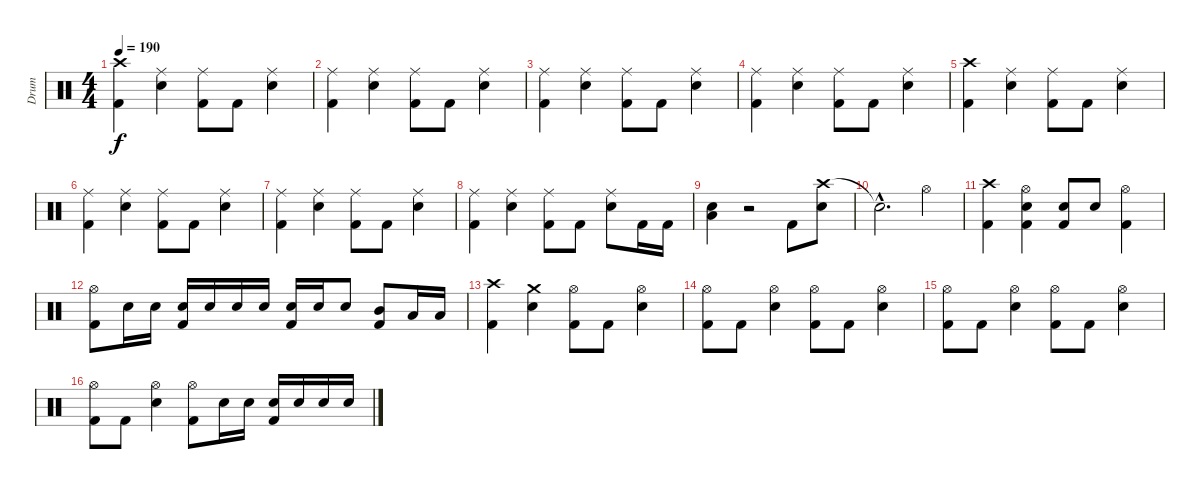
\track ("Drum" "Drum") {instrument percussion}
\staff {score}
\articulation defaults
\ts (4 4)
\tempo 190
\clef neutral
\ks c
("Crash high (hit)" "Kick (hit) 2").4{dy f} ("Ride (middle)" "Electric Snare (hit)").4 ("Ride (middle)" "Kick (hit) 2").8 "Kick (hit) 2".8 ("Ride (middle)" "Electric Snare (hit)").4 |
("Ride (middle)" "Kick (hit) 2").4 ("Ride (middle)" "Electric Snare (hit)").4 ("Ride (middle)" "Kick (hit) 2").8 "Kick (hit) 2".8 ("Ride (middle)" "Electric Snare (hit)").4 |
("Ride (middle)" "Kick (hit) 2").4 ("Ride (middle)" "Electric Snare (hit)").4 ("Ride (middle)" "Kick (hit) 2").8 "Kick (hit) 2".8 ("Ride (middle)" "Electric Snare (hit)").4 |
("Ride (middle)" "Kick (hit) 2").4 ("Ride (middle)" "Electric Snare (hit)").4 ("Ride (middle)" "Kick (hit) 2").8 "Kick (hit) 2".8 ("Ride (middle)" "Electric Snare (hit)").4 |
("Crash high (hit)" "Kick (hit) 2").4 ("Ride (middle)" "Electric Snare (hit)").4 ("Ride (middle)" "Kick (hit) 2").8 "Kick (hit) 2".8 ("Ride (middle)" "Electric Snare (hit)").4 |
("Ride (middle)" "Kick (hit) 2").4 ("Ride (middle)" "Electric Snare (hit)").4 ("Ride (middle)" "Kick (hit) 2").8 "Kick (hit) 2".8 ("Ride (middle)" "Electric Snare (hit)").4 |
("Ride (middle)" "Kick (hit) 2").4 ("Ride (middle)" "Electric Snare (hit)").4 ("Ride (middle)" "Kick (hit) 2").8 "Kick (hit) 2".8 ("Ride (middle)" "Electric Snare (hit)").4 |
("Ride (middle)" "Kick (hit) 2").4 ("Ride (middle)" "Electric Snare (hit)").4 ("Ride (middle)" "Kick (hit) 2").8 "Kick (hit) 2".8 ("Ride (middle)" "Electric Snare (hit)").8 "Kick (hit) 2".16 "Kick (hit) 2".16 |
("Electric Snare (hit)" "Low Floor Tom (hit)").4 r.2 "Kick (hit) 2".8 ("Crash high (hit)" "Electric Snare (hit)").8 |
"Snare (hit)"{hac t}.2{d} "Hi-Hat (open)".4 |
("Crash high (hit)" "Kick (hit) 2").4 ("Hi-Hat (open)" "Electric Snare (hit)" "Kick (hit) 2").4 ("Electric Snare (hit)" "Kick (hit) 2").8 "Electric Snare (hit)".8 ("Hi-Hat (open)" "Kick (hit) 2").4 |
("Hi-Hat (open)" "Kick (hit) 2").8 "Electric Snare (hit)".16 "Electric Snare (hit)".16 ("Electric Snare (hit)" "Kick (hit) 2").16 "Electric Snare (hit)".16 "Electric Snare (hit)".16 "Electric Snare (hit)".16 ("Electric Snare (hit)" "Kick (hit) 2").16 "Electric Snare (hit)".16 "Electric Snare (hit)".8 ("Mid Tom (hit)" "Kick (hit) 2").8 "Low Floor Tom (hit)".16 "Low Floor Tom (hit)".16 |
("Crash high (hit)" "Kick (hit) 2").4 ("Crash medium (hit)" "Electric Snare (hit)").4 ("Hi-Hat (open)" "Kick (hit) 2").8 "Kick (hit) 2".8 ("Hi-Hat (open)" "Electric Snare (hit)").4 |
("Hi-Hat (open)" "Kick (hit) 2").8 "Kick (hit) 2".8 ("Hi-Hat (open)" "Electric Snare (hit)").4 ("Hi-Hat (open)" "Kick (hit) 2").8 "Kick (hit) 2".8 ("Hi-Hat (open)" "Electric Snare (hit)").4 |
("Hi-Hat (open)" "Kick (hit) 2").8 "Kick (hit) 2".8 ("Hi-Hat (open)" "Electric Snare (hit)").4 ("Hi-Hat (open)" "Kick (hit) 2").8 "Kick (hit) 2".8 ("Hi-Hat (open)" "Electric Snare (hit)").4 |
("Hi-Hat (open)" "Kick (hit) 2").8 "Kick (hit) 2".8 ("Hi-Hat (open)" "Electric Snare (hit)").4 ("Hi-Hat (open)" "Kick (hit) 2").8 "Electric Snare (hit)".16 "Electric Snare (hit)".16 ("Electric Snare (hit)" "Kick (hit) 2").16 "Electric Snare (hit)".16 "Electric Snare (hit)".16 "Electric Snare (hit)".16
